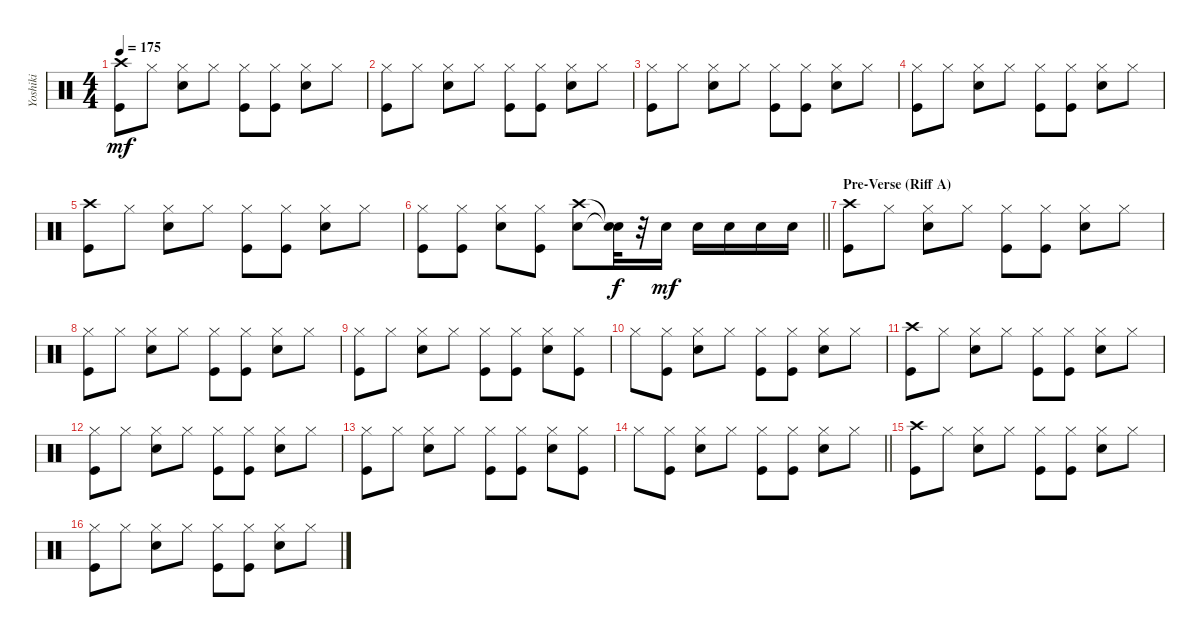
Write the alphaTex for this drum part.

\track ("Yoshiki" "Yoshiki") {instrument percussion}
\staff {score}
\articulation defaults
\ts (4 4)
\tempo 175
\clef neutral
\ks c
("Crash high (hit)" "Kick (hit)").8{dy mf} "Hi-Hat (closed)".8 ("Snare (hit) 2" "Hi-Hat (closed)").8 "Hi-Hat (closed)".8 ("Hi-Hat (closed)" "Kick (hit)").8 ("Hi-Hat (closed)" "Kick (hit)").8 ("Snare (hit) 2" "Hi-Hat (closed)").8 "Hi-Hat (closed)".8 |
("Hi-Hat (closed)" "Kick (hit)").8 "Hi-Hat (closed)".8 ("Snare (hit) 2" "Hi-Hat (closed)").8 "Hi-Hat (closed)".8 ("Hi-Hat (closed)" "Kick (hit)").8 ("Hi-Hat (closed)" "Kick (hit)").8 ("Snare (hit) 2" "Hi-Hat (closed)").8 "Hi-Hat (closed)".8 |
("Hi-Hat (closed)" "Kick (hit)").8 "Hi-Hat (closed)".8 ("Snare (hit) 2" "Hi-Hat (closed)").8 "Hi-Hat (closed)".8 ("Hi-Hat (closed)" "Kick (hit)").8 ("Hi-Hat (closed)" "Kick (hit)").8 ("Snare (hit) 2" "Hi-Hat (closed)").8 "Hi-Hat (closed)".8 |
("Hi-Hat (closed)" "Kick (hit)").8 "Hi-Hat (closed)".8 ("Snare (hit) 2" "Hi-Hat (closed)").8 "Hi-Hat (closed)".8 ("Hi-Hat (closed)" "Kick (hit)").8 ("Hi-Hat (closed)" "Kick (hit)").8 ("Snare (hit) 2" "Hi-Hat (closed)").8 "Hi-Hat (closed)".8 |
("Crash high (hit)" "Kick (hit)").8 "Hi-Hat (closed)".8 ("Snare (hit) 2" "Hi-Hat (closed)").8 "Hi-Hat (closed)".8 ("Hi-Hat (closed)" "Kick (hit)").8 ("Hi-Hat (closed)" "Kick (hit)").8 ("Snare (hit) 2" "Hi-Hat (closed)").8 "Hi-Hat (closed)".8 |
\barLineRight lightlight
("Hi-Hat (closed)" "Kick (hit)").8 ("Hi-Hat (closed)" "Kick (hit)").8 ("Snare (hit) 2" "Hi-Hat (closed)").8 ("Hi-Hat (closed)" "Kick (hit)").8 ("Snare (hit) 2" "Crash high (hit)").8 ("Snare (hit)"{t} "Snare (hit)"{t}).32{dy f} r.32 "Snare (hit) 2".16{dy mf} "Snare (hit) 2".16 "Snare (hit) 2".16 "Snare (hit) 2".16 "Snare (hit) 2".16 |
\section ("" "Pre-Verse (Riff A)")
("Crash high (hit)" "Kick (hit)").8 "Hi-Hat (closed)".8 ("Snare (hit) 2" "Hi-Hat (closed)").8 "Hi-Hat (closed)".8 ("Hi-Hat (closed)" "Kick (hit)").8 ("Hi-Hat (closed)" "Kick (hit)").8 ("Snare (hit) 2" "Hi-Hat (closed)").8 "Hi-Hat (closed)".8 |
("Hi-Hat (closed)" "Kick (hit)").8 "Hi-Hat (closed)".8 ("Snare (hit) 2" "Hi-Hat (closed)").8 "Hi-Hat (closed)".8 ("Hi-Hat (closed)" "Kick (hit)").8 ("Hi-Hat (closed)" "Kick (hit)").8 ("Snare (hit) 2" "Hi-Hat (closed)").8 "Hi-Hat (closed)".8 |
("Hi-Hat (closed)" "Kick (hit)").8 "Hi-Hat (closed)".8 ("Snare (hit) 2" "Hi-Hat (closed)").8 "Hi-Hat (closed)".8 ("Hi-Hat (closed)" "Kick (hit)").8 ("Hi-Hat (closed)" "Kick (hit)").8 ("Snare (hit) 2" "Hi-Hat (closed)").8 ("Hi-Hat (closed)" "Kick (hit)").8 |
"Hi-Hat (closed)".8 ("Hi-Hat (closed)" "Kick (hit)").8 ("Snare (hit) 2" "Hi-Hat (closed)").8 "Hi-Hat (closed)".8 ("Kick (hit)" "Hi-Hat (closed)").8 ("Kick (hit)" "Hi-Hat (closed)").8 ("Snare (hit) 2" "Hi-Hat (closed)").8 "Hi-Hat (closed)".8 |
("Crash high (hit)" "Kick (hit)").8 "Hi-Hat (closed)".8 ("Snare (hit) 2" "Hi-Hat (closed)").8 "Hi-Hat (closed)".8 ("Hi-Hat (closed)" "Kick (hit)").8 ("Hi-Hat (closed)" "Kick (hit)").8 ("Snare (hit) 2" "Hi-Hat (closed)").8 "Hi-Hat (closed)".8 |
("Hi-Hat (closed)" "Kick (hit)").8 "Hi-Hat (closed)".8 ("Snare (hit) 2" "Hi-Hat (closed)").8 "Hi-Hat (closed)".8 ("Hi-Hat (closed)" "Kick (hit)").8 ("Hi-Hat (closed)" "Kick (hit)").8 ("Snare (hit) 2" "Hi-Hat (closed)").8 "Hi-Hat (closed)".8 |
("Hi-Hat (closed)" "Kick (hit)").8 "Hi-Hat (closed)".8 ("Snare (hit) 2" "Hi-Hat (closed)").8 "Hi-Hat (closed)".8 ("Hi-Hat (closed)" "Kick (hit)").8 ("Hi-Hat (closed)" "Kick (hit)").8 ("Snare (hit) 2" "Hi-Hat (closed)").8 ("Hi-Hat (closed)" "Kick (hit)").8 |
\barLineRight lightlight "Hi-Hat (closed)".8
("Hi-Hat (closed)" "Kick (hit)").8 ("Snare (hit) 2" "Hi-Hat (closed)").8 "Hi-Hat (closed)".8 ("Kick (hit)" "Hi-Hat (closed)").8 ("Kick (hit)" "Hi-Hat (closed)").8 ("Snare (hit) 2" "Hi-Hat (closed)").8 "Hi-Hat (closed)".8 |
("Crash high (hit)" "Kick (hit)").8 "Hi-Hat (closed)".8 ("Snare (hit) 2" "Hi-Hat (closed)").8 "Hi-Hat (closed)".8 ("Hi-Hat (closed)" "Kick (hit)").8 ("Hi-Hat (closed)" "Kick (hit)").8 ("Snare (hit) 2" "Hi-Hat (closed)").8 "Hi-Hat (closed)".8 |
("Hi-Hat (closed)" "Kick (hit)").8 "Hi-Hat (closed)".8 ("Snare (hit) 2" "Hi-Hat (closed)").8 "Hi-Hat (closed)".8 ("Hi-Hat (closed)" "Kick (hit)").8 ("Hi-Hat (closed)" "Kick (hit)").8 ("Snare (hit) 2" "Hi-Hat (closed)").8 "Hi-Hat (closed)".8
